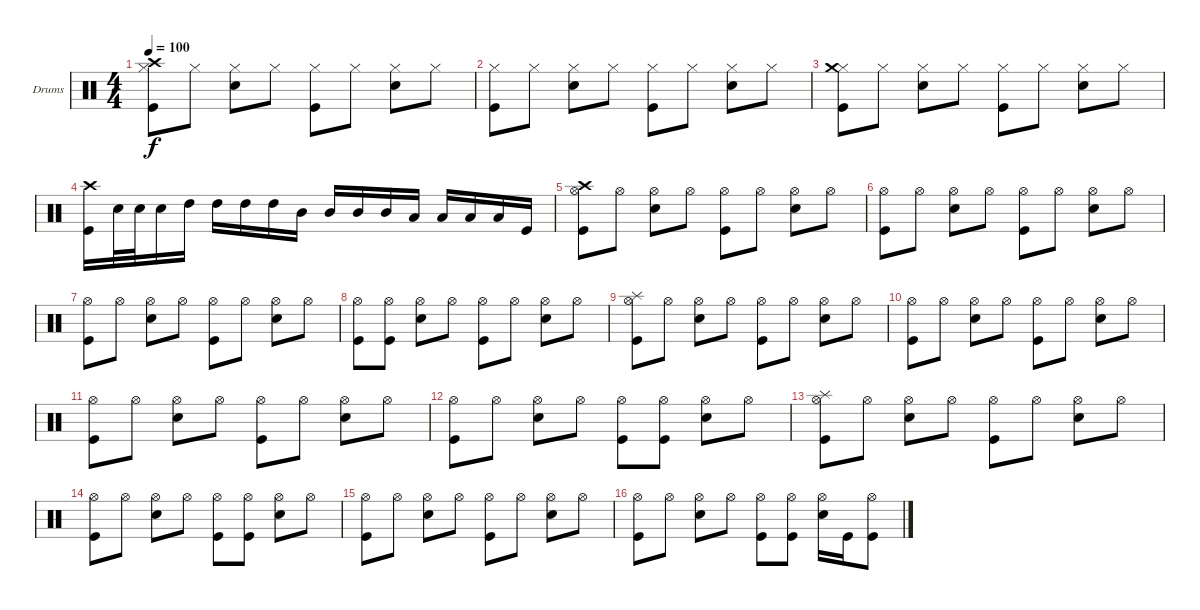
\defaultSystemsLayout 4
\bracketExtendMode groupsimilarinstruments
\firstSystemTrackNameOrientation horizontal
\otherSystemsTrackNameOrientation horizontal
\track ("Nick Menza " "Drums") {instrument percussion}
\staff {score}
\articulation defaults
\ts (4 4)
\tempo 100
\clef neutral
\ks c
("Hi-Hat (closed)" "Kick (hit)" "Crash high (hit)").8{dy f} "Hi-Hat (closed)".8 ("Hi-Hat (closed)" "Snare (hit) 2").8 "Hi-Hat (closed)".8 ("Hi-Hat (closed)" "Kick (hit)").8 "Hi-Hat (closed)".8 ("Hi-Hat (closed)" "Snare (hit) 2").8 "Hi-Hat (closed)".8 |
("Hi-Hat (closed)" "Kick (hit)").8 "Hi-Hat (closed)".8 ("Hi-Hat (closed)" "Snare (hit) 2").8 "Hi-Hat (closed)".8 ("Hi-Hat (closed)" "Kick (hit)").8 "Hi-Hat (closed)".8 ("Hi-Hat (closed)" "Snare (hit) 2").8 "Hi-Hat (closed)".8 |
("Hi-Hat (closed)" "Kick (hit)" "Crash medium (hit)").8 "Hi-Hat (closed)".8 ("Hi-Hat (closed)" "Snare (hit) 2").8 "Hi-Hat (closed)".8 ("Hi-Hat (closed)" "Kick (hit)").8 "Hi-Hat (closed)".8 ("Hi-Hat (closed)" "Snare (hit) 2").8 "Hi-Hat (closed)".8 |
("Kick (hit)" "Crash high (hit)").16 "Snare (hit) 2".32 "Snare (hit) 2".32 "Snare (hit) 2".16 "High Tom (hit)".16 "High Tom (hit)".16 "High Tom (hit)".16 "High Tom (hit)".16 "Mid Tom (hit)".16 "Mid Tom (hit)".16 "Mid Tom (hit)".16 "Mid Tom (hit)".16 "Low Tom (hit)".16 "Low Tom (hit)".16 "Low Tom (hit)".16 "Low Tom (hit)".16 "Kick (hit)".16 |
("Hi-Hat (open)" "Kick (hit)" "Crash high (hit)").8 "Hi-Hat (open)".8 ("Hi-Hat (open)" "Snare (hit) 2").8 "Hi-Hat (open)".8 ("Hi-Hat (open)" "Kick (hit)").8 "Hi-Hat (open)".8 ("Hi-Hat (open)" "Snare (hit) 2").8 "Hi-Hat (open)".8 |
("Hi-Hat (open)" "Kick (hit)").8 "Hi-Hat (open)".8 ("Hi-Hat (open)" "Snare (hit) 2").8 "Hi-Hat (open)".8 ("Hi-Hat (open)" "Kick (hit)").8 "Hi-Hat (open)".8 ("Hi-Hat (open)" "Snare (hit) 2").8 "Hi-Hat (open)".8 |
("Hi-Hat (open)" "Kick (hit)").8 "Hi-Hat (open)".8 ("Hi-Hat (open)" "Snare (hit) 2").8 "Hi-Hat (open)".8 ("Hi-Hat (open)" "Kick (hit)").8 "Hi-Hat (open)".8 ("Hi-Hat (open)" "Snare (hit) 2").8 "Hi-Hat (open)".8 |
("Hi-Hat (open)" "Kick (hit)").8 ("Hi-Hat (open)" "Kick (hit)").8 ("Hi-Hat (open)" "Snare (hit) 2").8 "Hi-Hat (open)".8 ("Hi-Hat (open)" "Kick (hit)").8 "Hi-Hat (open)".8 ("Hi-Hat (open)" "Snare (hit) 2").8 "Hi-Hat (open)".8 |
("Hi-Hat (open)" "Kick (hit)" "Splash (hit)").8 "Hi-Hat (open)".8 ("Hi-Hat (open)" "Snare (hit) 2").8 "Hi-Hat (open)".8 ("Hi-Hat (open)" "Kick (hit)").8 "Hi-Hat (open)".8 ("Hi-Hat (open)" "Snare (hit) 2").8 "Hi-Hat (open)".8 |
("Hi-Hat (open)" "Kick (hit)").8 "Hi-Hat (open)".8 ("Hi-Hat (open)" "Snare (hit) 2").8 "Hi-Hat (open)".8 ("Hi-Hat (open)" "Kick (hit)").8 "Hi-Hat (open)".8 ("Hi-Hat (open)" "Snare (hit) 2").8 "Hi-Hat (open)".8 |
("Hi-Hat (open)" "Kick (hit)").8 "Hi-Hat (open)".8 ("Hi-Hat (open)" "Snare (hit) 2").8 "Hi-Hat (open)".8 ("Hi-Hat (open)" "Kick (hit)").8 "Hi-Hat (open)".8 ("Hi-Hat (open)" "Snare (hit) 2").8 "Hi-Hat (open)".8 |
("Hi-Hat (open)" "Kick (hit)").8 "Hi-Hat (open)".8 ("Hi-Hat (open)" "Snare (hit) 2").8 "Hi-Hat (open)".8 ("Hi-Hat (open)" "Kick (hit)").8 ("Hi-Hat (open)" "Kick (hit)").8 ("Hi-Hat (open)" "Snare (hit) 2").8 "Hi-Hat (open)".8 |
("Hi-Hat (open)" "Kick (hit)" "Splash (hit)").8 "Hi-Hat (open)".8 ("Hi-Hat (open)" "Snare (hit) 2").8 "Hi-Hat (open)".8 ("Hi-Hat (open)" "Kick (hit)").8 "Hi-Hat (open)".8 ("Hi-Hat (open)" "Snare (hit) 2").8 "Hi-Hat (open)".8 |
("Hi-Hat (open)" "Kick (hit)").8 "Hi-Hat (open)".8 ("Hi-Hat (open)" "Snare (hit) 2").8 "Hi-Hat (open)".8 ("Hi-Hat (open)" "Kick (hit)").8 ("Hi-Hat (open)" "Kick (hit)").8 ("Hi-Hat (open)" "Snare (hit) 2").8 "Hi-Hat (open)".8 |
("Hi-Hat (open)" "Kick (hit)").8 "Hi-Hat (open)".8 ("Hi-Hat (open)" "Snare (hit) 2").8 "Hi-Hat (open)".8 ("Hi-Hat (open)" "Kick (hit)").8 "Hi-Hat (open)".8 ("Hi-Hat (open)" "Snare (hit) 2").8 "Hi-Hat (open)".8 |
("Hi-Hat (open)" "Kick (hit)").8 "Hi-Hat (open)".8 ("Hi-Hat (open)" "Snare (hit) 2").8 "Hi-Hat (open)".8 ("Hi-Hat (open)" "Kick (hit)").8 ("Hi-Hat (open)" "Kick (hit)").8 ("Hi-Hat (open)" "Snare (hit) 2").16 "Kick (hit)".16 ("Hi-Hat (open)" "Kick (hit)").8
